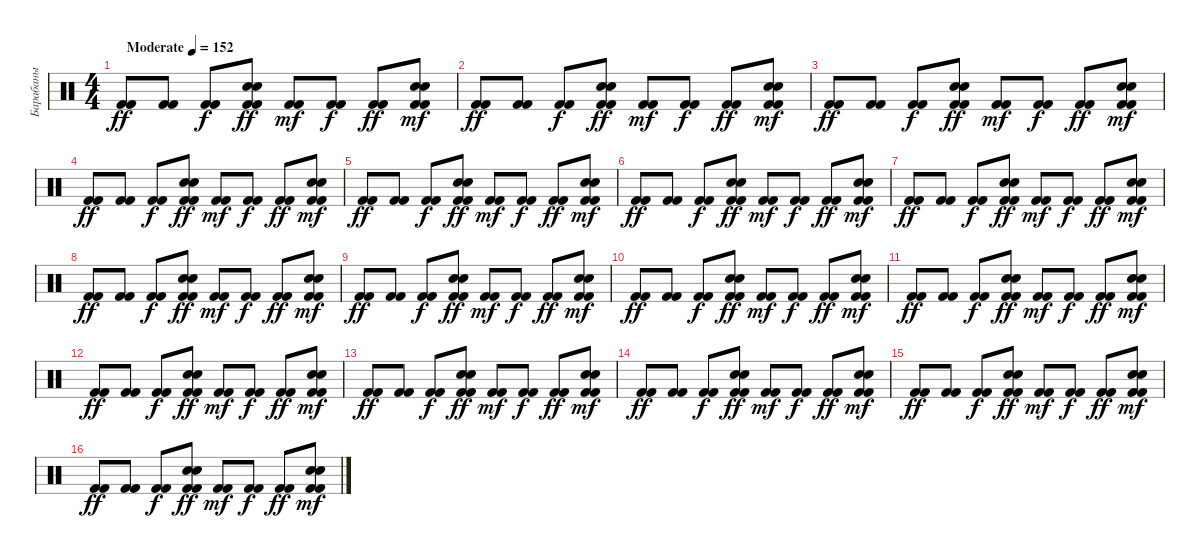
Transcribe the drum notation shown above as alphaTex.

\track ("Барабаны" "Барабаны") {instrument percussion}
\staff {score}
\articulation defaults
\ts (4 4)
\tempo (152 "Moderate")
\clef neutral
\ks c
("Kick (hit) 2" "Kick (hit) 2").8{dy ff} ("Kick (hit) 2" "Kick (hit) 2").8 ("Kick (hit) 2" "Kick (hit) 2").8{dy f} ("Kick (hit) 2" "Kick (hit) 2" "Snare (hit) 2" "Snare (hit) 2").8{dy ff} ("Kick (hit) 2" "Kick (hit) 2").8{dy mf} ("Kick (hit) 2" "Kick (hit) 2").8{dy f} ("Kick (hit) 2" "Kick (hit) 2").8{dy ff} ("Kick (hit) 2" "Kick (hit) 2" "Snare (hit) 2" "Snare (hit) 2").8{dy mf} |
("Kick (hit) 2" "Kick (hit) 2").8{dy ff} ("Kick (hit) 2" "Kick (hit) 2").8 ("Kick (hit) 2" "Kick (hit) 2").8{dy f} ("Kick (hit) 2" "Kick (hit) 2" "Snare (hit) 2" "Snare (hit) 2").8{dy ff} ("Kick (hit) 2" "Kick (hit) 2").8{dy mf} ("Kick (hit) 2" "Kick (hit) 2").8{dy f} ("Kick (hit) 2" "Kick (hit) 2").8{dy ff} ("Kick (hit) 2" "Kick (hit) 2" "Snare (hit) 2" "Snare (hit) 2").8{dy mf} |
("Kick (hit) 2" "Kick (hit) 2").8{dy ff} ("Kick (hit) 2" "Kick (hit) 2").8 ("Kick (hit) 2" "Kick (hit) 2").8{dy f} ("Kick (hit) 2" "Kick (hit) 2" "Snare (hit) 2" "Snare (hit) 2").8{dy ff} ("Kick (hit) 2" "Kick (hit) 2").8{dy mf} ("Kick (hit) 2" "Kick (hit) 2").8{dy f} ("Kick (hit) 2" "Kick (hit) 2").8{dy ff} ("Kick (hit) 2" "Kick (hit) 2" "Snare (hit) 2" "Snare (hit) 2").8{dy mf} |
("Kick (hit) 2" "Kick (hit) 2").8{dy ff} ("Kick (hit) 2" "Kick (hit) 2").8 ("Kick (hit) 2" "Kick (hit) 2").8{dy f} ("Kick (hit) 2" "Kick (hit) 2" "Snare (hit) 2" "Snare (hit) 2").8{dy ff} ("Kick (hit) 2" "Kick (hit) 2").8{dy mf} ("Kick (hit) 2" "Kick (hit) 2").8{dy f} ("Kick (hit) 2" "Kick (hit) 2").8{dy ff} ("Kick (hit) 2" "Kick (hit) 2" "Snare (hit) 2" "Snare (hit) 2").8{dy mf} |
("Kick (hit) 2" "Kick (hit) 2").8{dy ff} ("Kick (hit) 2" "Kick (hit) 2").8 ("Kick (hit) 2" "Kick (hit) 2").8{dy f} ("Kick (hit) 2" "Kick (hit) 2" "Snare (hit) 2" "Snare (hit) 2").8{dy ff} ("Kick (hit) 2" "Kick (hit) 2").8{dy mf} ("Kick (hit) 2" "Kick (hit) 2").8{dy f} ("Kick (hit) 2" "Kick (hit) 2").8{dy ff} ("Kick (hit) 2" "Kick (hit) 2" "Snare (hit) 2" "Snare (hit) 2").8{dy mf} |
("Kick (hit) 2" "Kick (hit) 2").8{dy ff} ("Kick (hit) 2" "Kick (hit) 2").8 ("Kick (hit) 2" "Kick (hit) 2").8{dy f} ("Kick (hit) 2" "Kick (hit) 2" "Snare (hit) 2" "Snare (hit) 2").8{dy ff} ("Kick (hit) 2" "Kick (hit) 2").8{dy mf} ("Kick (hit) 2" "Kick (hit) 2").8{dy f} ("Kick (hit) 2" "Kick (hit) 2").8{dy ff} ("Kick (hit) 2" "Kick (hit) 2" "Snare (hit) 2" "Snare (hit) 2").8{dy mf} |
("Kick (hit) 2" "Kick (hit) 2").8{dy ff} ("Kick (hit) 2" "Kick (hit) 2").8 ("Kick (hit) 2" "Kick (hit) 2").8{dy f} ("Kick (hit) 2" "Kick (hit) 2" "Snare (hit) 2" "Snare (hit) 2").8{dy ff} ("Kick (hit) 2" "Kick (hit) 2").8{dy mf} ("Kick (hit) 2" "Kick (hit) 2").8{dy f} ("Kick (hit) 2" "Kick (hit) 2").8{dy ff} ("Kick (hit) 2" "Kick (hit) 2" "Snare (hit) 2" "Snare (hit) 2").8{dy mf} |
("Kick (hit) 2" "Kick (hit) 2").8{dy ff} ("Kick (hit) 2" "Kick (hit) 2").8 ("Kick (hit) 2" "Kick (hit) 2").8{dy f} ("Kick (hit) 2" "Kick (hit) 2" "Snare (hit) 2" "Snare (hit) 2").8{dy ff} ("Kick (hit) 2" "Kick (hit) 2").8{dy mf} ("Kick (hit) 2" "Kick (hit) 2").8{dy f} ("Kick (hit) 2" "Kick (hit) 2").8{dy ff} ("Kick (hit) 2" "Kick (hit) 2" "Snare (hit) 2" "Snare (hit) 2").8{dy mf} |
("Kick (hit) 2" "Kick (hit) 2").8{dy ff} ("Kick (hit) 2" "Kick (hit) 2").8 ("Kick (hit) 2" "Kick (hit) 2").8{dy f} ("Kick (hit) 2" "Kick (hit) 2" "Snare (hit) 2" "Snare (hit) 2").8{dy ff} ("Kick (hit) 2" "Kick (hit) 2").8{dy mf} ("Kick (hit) 2" "Kick (hit) 2").8{dy f} ("Kick (hit) 2" "Kick (hit) 2").8{dy ff} ("Kick (hit) 2" "Kick (hit) 2" "Snare (hit) 2" "Snare (hit) 2").8{dy mf} |
("Kick (hit) 2" "Kick (hit) 2").8{dy ff} ("Kick (hit) 2" "Kick (hit) 2").8 ("Kick (hit) 2" "Kick (hit) 2").8{dy f} ("Kick (hit) 2" "Kick (hit) 2" "Snare (hit) 2" "Snare (hit) 2").8{dy ff} ("Kick (hit) 2" "Kick (hit) 2").8{dy mf} ("Kick (hit) 2" "Kick (hit) 2").8{dy f} ("Kick (hit) 2" "Kick (hit) 2").8{dy ff} ("Kick (hit) 2" "Kick (hit) 2" "Snare (hit) 2" "Snare (hit) 2").8{dy mf} |
("Kick (hit) 2" "Kick (hit) 2").8{dy ff} ("Kick (hit) 2" "Kick (hit) 2").8 ("Kick (hit) 2" "Kick (hit) 2").8{dy f} ("Kick (hit) 2" "Kick (hit) 2" "Snare (hit) 2" "Snare (hit) 2").8{dy ff} ("Kick (hit) 2" "Kick (hit) 2").8{dy mf} ("Kick (hit) 2" "Kick (hit) 2").8{dy f} ("Kick (hit) 2" "Kick (hit) 2").8{dy ff} ("Kick (hit) 2" "Kick (hit) 2" "Snare (hit) 2" "Snare (hit) 2").8{dy mf} |
("Kick (hit) 2" "Kick (hit) 2").8{dy ff} ("Kick (hit) 2" "Kick (hit) 2").8 ("Kick (hit) 2" "Kick (hit) 2").8{dy f} ("Kick (hit) 2" "Kick (hit) 2" "Snare (hit) 2" "Snare (hit) 2").8{dy ff} ("Kick (hit) 2" "Kick (hit) 2").8{dy mf} ("Kick (hit) 2" "Kick (hit) 2").8{dy f} ("Kick (hit) 2" "Kick (hit) 2").8{dy ff} ("Kick (hit) 2" "Kick (hit) 2" "Snare (hit) 2" "Snare (hit) 2").8{dy mf} |
("Kick (hit) 2" "Kick (hit) 2").8{dy ff} ("Kick (hit) 2" "Kick (hit) 2").8 ("Kick (hit) 2" "Kick (hit) 2").8{dy f} ("Kick (hit) 2" "Kick (hit) 2" "Snare (hit) 2" "Snare (hit) 2").8{dy ff} ("Kick (hit) 2" "Kick (hit) 2").8{dy mf} ("Kick (hit) 2" "Kick (hit) 2").8{dy f} ("Kick (hit) 2" "Kick (hit) 2").8{dy ff} ("Kick (hit) 2" "Kick (hit) 2" "Snare (hit) 2" "Snare (hit) 2").8{dy mf} |
("Kick (hit) 2" "Kick (hit) 2").8{dy ff} ("Kick (hit) 2" "Kick (hit) 2").8 ("Kick (hit) 2" "Kick (hit) 2").8{dy f} ("Kick (hit) 2" "Kick (hit) 2" "Snare (hit) 2" "Snare (hit) 2").8{dy ff} ("Kick (hit) 2" "Kick (hit) 2").8{dy mf} ("Kick (hit) 2" "Kick (hit) 2").8{dy f} ("Kick (hit) 2" "Kick (hit) 2").8{dy ff} ("Kick (hit) 2" "Kick (hit) 2" "Snare (hit) 2" "Snare (hit) 2").8{dy mf} |
("Kick (hit) 2" "Kick (hit) 2").8{dy ff} ("Kick (hit) 2" "Kick (hit) 2").8 ("Kick (hit) 2" "Kick (hit) 2").8{dy f} ("Kick (hit) 2" "Kick (hit) 2" "Snare (hit) 2" "Snare (hit) 2").8{dy ff} ("Kick (hit) 2" "Kick (hit) 2").8{dy mf} ("Kick (hit) 2" "Kick (hit) 2").8{dy f} ("Kick (hit) 2" "Kick (hit) 2").8{dy ff} ("Kick (hit) 2" "Kick (hit) 2" "Snare (hit) 2" "Snare (hit) 2").8{dy mf} |
("Kick (hit) 2" "Kick (hit) 2").8{dy ff} ("Kick (hit) 2" "Kick (hit) 2").8 ("Kick (hit) 2" "Kick (hit) 2").8{dy f} ("Kick (hit) 2" "Kick (hit) 2" "Snare (hit) 2" "Snare (hit) 2").8{dy ff} ("Kick (hit) 2" "Kick (hit) 2").8{dy mf} ("Kick (hit) 2" "Kick (hit) 2").8{dy f} ("Kick (hit) 2" "Kick (hit) 2").8{dy ff} ("Kick (hit) 2" "Kick (hit) 2" "Snare (hit) 2" "Snare (hit) 2").8{dy mf}
